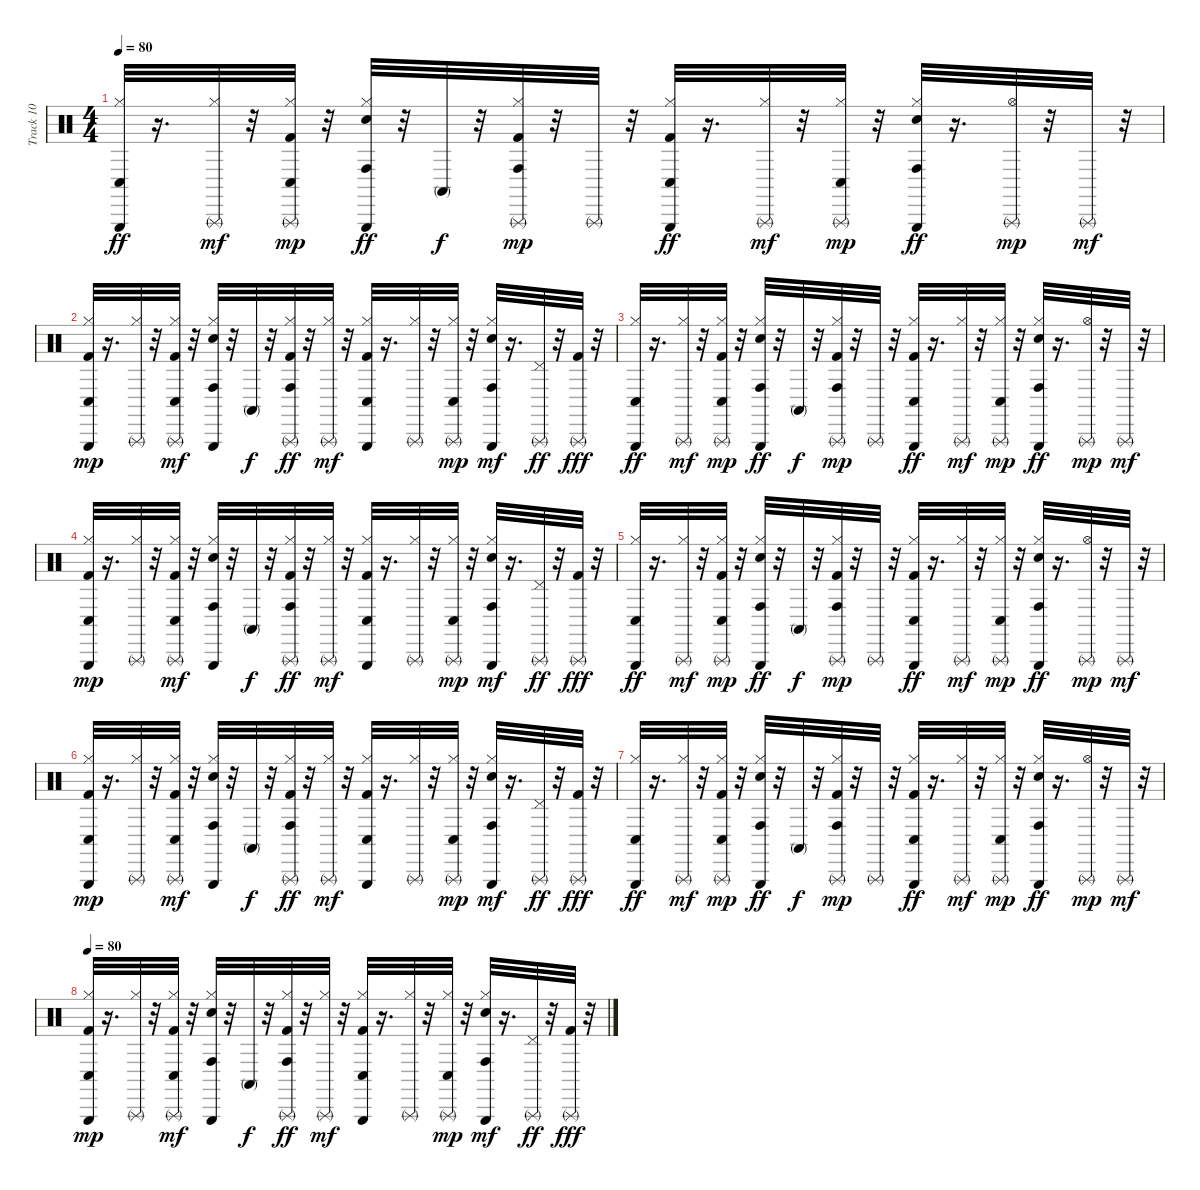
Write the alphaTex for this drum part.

\track ("Track 10" "Track 10") {instrument percussion}
\staff {score}
\articulation defaults
\ts (4 4)
\tempo 80
\clef neutral
\ks c
("Triangle (hit)" "Conga low (hit)" "Hi-Hat (closed)").32{dy ff} r.16{d} ("Triangle (rnute)" "Hi-Hat (closed)").32{dy mf} r.32 ("Conga low (hit)" "Kick (hit) 2" "Hi-Hat (closed)" "Triangle (rnute)").32{dy mp} r.32 ("Triangle (hit)" "Conga high (hit)" "Snare (hit) 2" "Hi-Hat (closed)").32{dy ff} r.32 "Conga high (mute)".32{dy f} r.32 ("Hi-Hat (closed)" "Conga high (hit)" "Kick (hit) 2" "Triangle (rnute)").32{dy mp} r.32 "Triangle (rnute)".32 r.32 ("Triangle (hit)" "Conga low (hit)" "Kick (hit) 2" "Hi-Hat (closed)").32{dy ff} r.16{d} ("Hi-Hat (closed)" "Triangle (rnute)").32{dy mf} r.32 ("Conga low (hit)" "Hi-Hat (closed)" "Triangle (rnute)").32{dy mp} r.32 ("Triangle (hit)" "Conga high (hit)" "Snare (hit) 2" "Hi-Hat (closed)").32{dy ff} r.16{d} ("Triangle (rnute)" "Hi-Hat (open)").32{dy mp} r.32 "Triangle (rnute)".32{dy mf} r.32 |
("Hi-Hat (closed)" "Kick (hit) 2" "Conga low (hit)" "Triangle (hit)").32{dy mp} r.16{d} ("Triangle (rnute)" "Hi-Hat (closed)").32 r.32 ("Triangle (rnute)" "Conga low (hit)" "Kick (hit) 2" "Hi-Hat (closed)").32{dy mf} r.32 ("Conga high (hit)" "Snare (hit) 2" "Hi-Hat (closed)" "Triangle (hit)").32 r.32 "Conga high (mute)".32{dy f} r.32 ("Triangle (rnute)" "Conga high (hit)" "Kick (hit) 2" "Hi-Hat (closed)").32{dy ff} r.32 ("Triangle (rnute)" "Hi-Hat (closed)").32{dy mf} r.32 ("Conga low (hit)" "Kick (hit) 2" "Hi-Hat (closed)" "Triangle (hit)").32 r.16{d} ("Triangle (rnute)" "Hi-Hat (closed)").32 r.32 ("Conga low (hit)" "Hi-Hat (closed)" "Triangle (rnute)").32{dy mp} r.32 ("Conga high (hit)" "Snare (hit) 2" "Hi-Hat (closed)" "Triangle (hit)").32{dy mf} r.16{d} ("Triangle (rnute)" "Pedal Hi-Hat (hit)").32{dy ff} r.32 ("Triangle (rnute)" "Kick (hit) 2").32{dy fff} r.32 |
("Triangle (hit)" "Conga low (hit)" "Hi-Hat (closed)").32{dy ff} r.16{d} ("Triangle (rnute)" "Hi-Hat (closed)").32{dy mf} r.32 ("Conga low (hit)" "Kick (hit) 2" "Hi-Hat (closed)" "Triangle (rnute)").32{dy mp} r.32 ("Triangle (hit)" "Conga high (hit)" "Snare (hit) 2" "Hi-Hat (closed)").32{dy ff} r.32 "Conga high (mute)".32{dy f} r.32 ("Hi-Hat (closed)" "Conga high (hit)" "Kick (hit) 2" "Triangle (rnute)").32{dy mp} r.32 "Triangle (rnute)".32 r.32 ("Triangle (hit)" "Conga low (hit)" "Kick (hit) 2" "Hi-Hat (closed)").32{dy ff} r.16{d} ("Hi-Hat (closed)" "Triangle (rnute)").32{dy mf} r.32 ("Conga low (hit)" "Hi-Hat (closed)" "Triangle (rnute)").32{dy mp} r.32 ("Triangle (hit)" "Conga high (hit)" "Snare (hit) 2" "Hi-Hat (closed)").32{dy ff} r.16{d} ("Triangle (rnute)" "Hi-Hat (open)").32{dy mp} r.32 "Triangle (rnute)".32{dy mf} r.32 |
("Hi-Hat (closed)" "Kick (hit) 2" "Conga low (hit)" "Triangle (hit)").32{dy mp} r.16{d} ("Triangle (rnute)" "Hi-Hat (closed)").32 r.32 ("Triangle (rnute)" "Conga low (hit)" "Kick (hit) 2" "Hi-Hat (closed)").32{dy mf} r.32 ("Conga high (hit)" "Snare (hit) 2" "Hi-Hat (closed)" "Triangle (hit)").32 r.32 "Conga high (mute)".32{dy f} r.32 ("Triangle (rnute)" "Conga high (hit)" "Kick (hit) 2" "Hi-Hat (closed)").32{dy ff} r.32 ("Triangle (rnute)" "Hi-Hat (closed)").32{dy mf} r.32 ("Conga low (hit)" "Kick (hit) 2" "Hi-Hat (closed)" "Triangle (hit)").32 r.16{d} ("Triangle (rnute)" "Hi-Hat (closed)").32 r.32 ("Conga low (hit)" "Hi-Hat (closed)" "Triangle (rnute)").32{dy mp} r.32 ("Conga high (hit)" "Snare (hit) 2" "Hi-Hat (closed)" "Triangle (hit)").32{dy mf} r.16{d} ("Triangle (rnute)" "Pedal Hi-Hat (hit)").32{dy ff} r.32 ("Triangle (rnute)" "Kick (hit) 2").32{dy fff} r.32 |
("Triangle (hit)" "Conga low (hit)" "Hi-Hat (closed)").32{dy ff} r.16{d} ("Triangle (rnute)" "Hi-Hat (closed)").32{dy mf} r.32 ("Conga low (hit)" "Kick (hit) 2" "Hi-Hat (closed)" "Triangle (rnute)").32{dy mp} r.32 ("Triangle (hit)" "Conga high (hit)" "Snare (hit) 2" "Hi-Hat (closed)").32{dy ff} r.32 "Conga high (mute)".32{dy f} r.32 ("Hi-Hat (closed)" "Conga high (hit)" "Kick (hit) 2" "Triangle (rnute)").32{dy mp} r.32 "Triangle (rnute)".32 r.32 ("Triangle (hit)" "Conga low (hit)" "Kick (hit) 2" "Hi-Hat (closed)").32{dy ff} r.16{d} ("Hi-Hat (closed)" "Triangle (rnute)").32{dy mf} r.32 ("Conga low (hit)" "Hi-Hat (closed)" "Triangle (rnute)").32{dy mp} r.32 ("Triangle (hit)" "Conga high (hit)" "Snare (hit) 2" "Hi-Hat (closed)").32{dy ff} r.16{d} ("Triangle (rnute)" "Hi-Hat (open)").32{dy mp} r.32 "Triangle (rnute)".32{dy mf} r.32 |
("Hi-Hat (closed)" "Kick (hit) 2" "Conga low (hit)" "Triangle (hit)").32{dy mp} r.16{d} ("Triangle (rnute)" "Hi-Hat (closed)").32 r.32 ("Triangle (rnute)" "Conga low (hit)" "Kick (hit) 2" "Hi-Hat (closed)").32{dy mf} r.32 ("Conga high (hit)" "Snare (hit) 2" "Hi-Hat (closed)" "Triangle (hit)").32 r.32 "Conga high (mute)".32{dy f} r.32 ("Triangle (rnute)" "Conga high (hit)" "Kick (hit) 2" "Hi-Hat (closed)").32{dy ff} r.32 ("Triangle (rnute)" "Hi-Hat (closed)").32{dy mf} r.32 ("Conga low (hit)" "Kick (hit) 2" "Hi-Hat (closed)" "Triangle (hit)").32 r.16{d} ("Triangle (rnute)" "Hi-Hat (closed)").32 r.32 ("Conga low (hit)" "Hi-Hat (closed)" "Triangle (rnute)").32{dy mp} r.32 ("Conga high (hit)" "Snare (hit) 2" "Hi-Hat (closed)" "Triangle (hit)").32{dy mf} r.16{d} ("Triangle (rnute)" "Pedal Hi-Hat (hit)").32{dy ff} r.32 ("Triangle (rnute)" "Kick (hit) 2").32{dy fff} r.32 |
("Triangle (hit)" "Conga low (hit)" "Hi-Hat (closed)").32{dy ff} r.16{d} ("Triangle (rnute)" "Hi-Hat (closed)").32{dy mf} r.32 ("Conga low (hit)" "Kick (hit) 2" "Hi-Hat (closed)" "Triangle (rnute)").32{dy mp} r.32 ("Triangle (hit)" "Conga high (hit)" "Snare (hit) 2" "Hi-Hat (closed)").32{dy ff} r.32 "Conga high (mute)".32{dy f} r.32 ("Hi-Hat (closed)" "Conga high (hit)" "Kick (hit) 2" "Triangle (rnute)").32{dy mp} r.32 "Triangle (rnute)".32 r.32 ("Triangle (hit)" "Conga low (hit)" "Kick (hit) 2" "Hi-Hat (closed)").32{dy ff} r.16{d} ("Hi-Hat (closed)" "Triangle (rnute)").32{dy mf} r.32 ("Conga low (hit)" "Hi-Hat (closed)" "Triangle (rnute)").32{dy mp} r.32 ("Triangle (hit)" "Conga high (hit)" "Snare (hit) 2" "Hi-Hat (closed)").32{dy ff} r.16{d} ("Triangle (rnute)" "Hi-Hat (open)").32{dy mp} r.32 "Triangle (rnute)".32{dy mf} r.32 |
\tempo 80
("Hi-Hat (closed)" "Kick (hit) 2" "Conga low (hit)" "Triangle (hit)").32{dy mp} r.16{d} ("Triangle (rnute)" "Hi-Hat (closed)").32 r.32 ("Triangle (rnute)" "Conga low (hit)" "Kick (hit) 2" "Hi-Hat (closed)").32{dy mf} r.32 ("Conga high (hit)" "Snare (hit) 2" "Hi-Hat (closed)" "Triangle (hit)").32 r.32 "Conga high (mute)".32{dy f} r.32 ("Triangle (rnute)" "Conga high (hit)" "Kick (hit) 2" "Hi-Hat (closed)").32{dy ff} r.32 ("Triangle (rnute)" "Hi-Hat (closed)").32{dy mf} r.32 ("Conga low (hit)" "Kick (hit) 2" "Hi-Hat (closed)" "Triangle (hit)").32 r.16{d} ("Triangle (rnute)" "Hi-Hat (closed)").32 r.32 ("Conga low (hit)" "Hi-Hat (closed)" "Triangle (rnute)").32{dy mp} r.32 ("Conga high (hit)" "Snare (hit) 2" "Hi-Hat (closed)" "Triangle (hit)").32{dy mf} r.16{d} ("Triangle (rnute)" "Pedal Hi-Hat (hit)").32{dy ff} r.32 ("Triangle (rnute)" "Kick (hit) 2").32{dy fff} r.32
